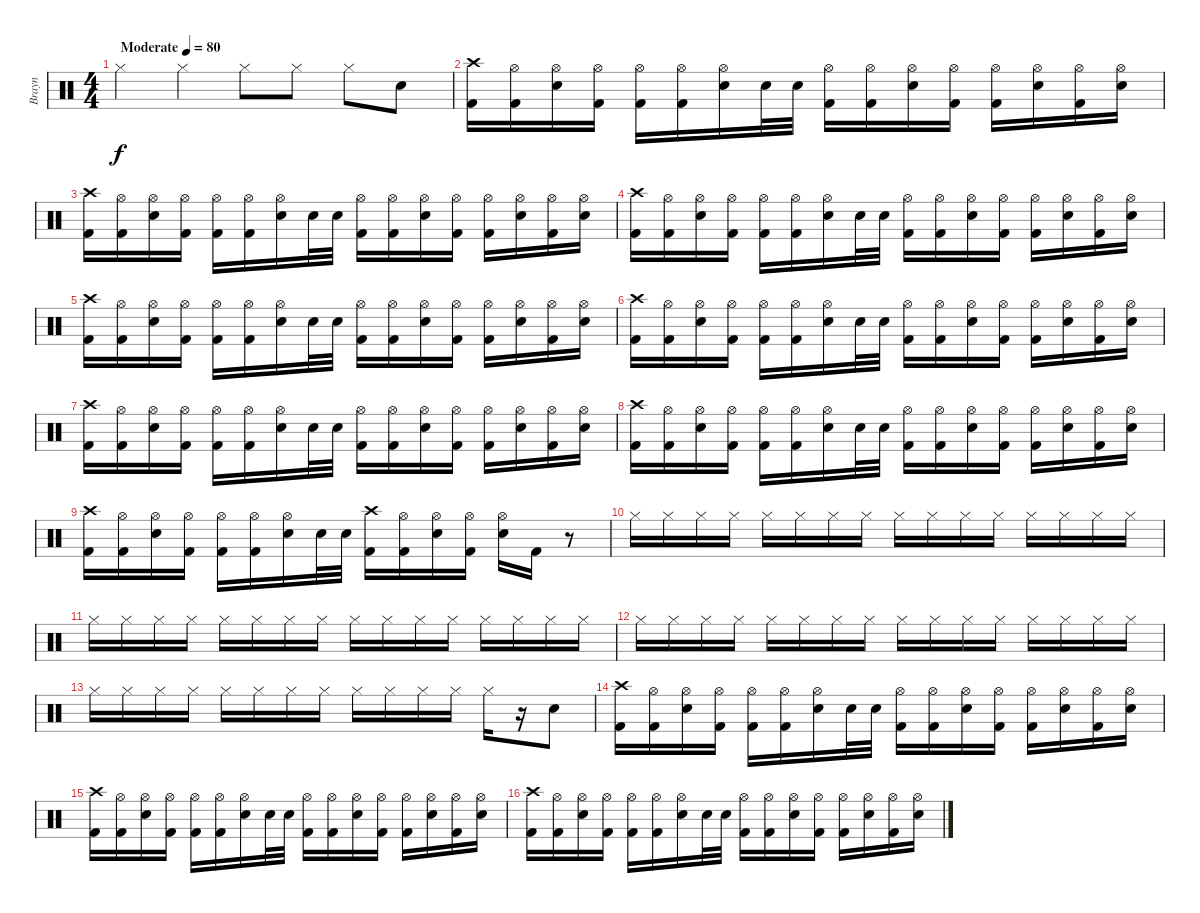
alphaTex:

\track ("Brayn" "Brayn") {instrument percussion}
\staff {score}
\articulation defaults
\ts (4 4)
\tempo (80 "Moderate")
\clef neutral
\ks c "Hi-Hat (closed)".4{dy f} "Hi-Hat (closed)".4 "Hi-Hat (closed)".8 "Hi-Hat (closed)".8 "Hi-Hat (closed)".8 "Snare (hit) 2".8
|
("Crash high (hit)" "Kick (hit) 2").16 ("Hi-Hat (open)" "Kick (hit) 2").16 ("Hi-Hat (open)" "Snare (hit) 2").16 ("Hi-Hat (open)" "Kick (hit) 2").16 ("Hi-Hat (open)" "Kick (hit) 2").16 ("Hi-Hat (open)" "Kick (hit) 2").16 ("Hi-Hat (open)" "Snare (hit) 2").16 "Snare (hit) 2".32 "Snare (hit) 2".32 ("Hi-Hat (open)" "Kick (hit) 2").16 ("Hi-Hat (open)" "Kick (hit) 2").16 ("Hi-Hat (open)" "Snare (hit) 2").16 ("Hi-Hat (open)" "Kick (hit) 2").16 ("Hi-Hat (open)" "Kick (hit) 2").16 ("Hi-Hat (open)" "Snare (hit) 2").16 ("Hi-Hat (open)" "Kick (hit) 2").16 ("Hi-Hat (open)" "Snare (hit) 2").16 |
("Crash high (hit)" "Kick (hit) 2").16 ("Hi-Hat (open)" "Kick (hit) 2").16 ("Hi-Hat (open)" "Snare (hit) 2").16 ("Hi-Hat (open)" "Kick (hit) 2").16 ("Hi-Hat (open)" "Kick (hit) 2").16 ("Hi-Hat (open)" "Kick (hit) 2").16 ("Hi-Hat (open)" "Snare (hit) 2").16 "Snare (hit) 2".32 "Snare (hit) 2".32 ("Hi-Hat (open)" "Kick (hit) 2").16 ("Hi-Hat (open)" "Kick (hit) 2").16 ("Hi-Hat (open)" "Snare (hit) 2").16 ("Hi-Hat (open)" "Kick (hit) 2").16 ("Hi-Hat (open)" "Kick (hit) 2").16 ("Hi-Hat (open)" "Snare (hit) 2").16 ("Hi-Hat (open)" "Kick (hit) 2").16 ("Hi-Hat (open)" "Snare (hit) 2").16 |
("Crash high (hit)" "Kick (hit) 2").16 ("Hi-Hat (open)" "Kick (hit) 2").16 ("Hi-Hat (open)" "Snare (hit) 2").16 ("Hi-Hat (open)" "Kick (hit) 2").16 ("Hi-Hat (open)" "Kick (hit) 2").16 ("Hi-Hat (open)" "Kick (hit) 2").16 ("Hi-Hat (open)" "Snare (hit) 2").16 "Snare (hit) 2".32 "Snare (hit) 2".32 ("Hi-Hat (open)" "Kick (hit) 2").16 ("Hi-Hat (open)" "Kick (hit) 2").16 ("Hi-Hat (open)" "Snare (hit) 2").16 ("Hi-Hat (open)" "Kick (hit) 2").16 ("Hi-Hat (open)" "Kick (hit) 2").16 ("Hi-Hat (open)" "Snare (hit) 2").16 ("Hi-Hat (open)" "Kick (hit) 2").16 ("Hi-Hat (open)" "Snare (hit) 2").16 |
("Crash high (hit)" "Kick (hit) 2").16 ("Hi-Hat (open)" "Kick (hit) 2").16 ("Hi-Hat (open)" "Snare (hit) 2").16 ("Hi-Hat (open)" "Kick (hit) 2").16 ("Hi-Hat (open)" "Kick (hit) 2").16 ("Hi-Hat (open)" "Kick (hit) 2").16 ("Hi-Hat (open)" "Snare (hit) 2").16 "Snare (hit) 2".32 "Snare (hit) 2".32 ("Hi-Hat (open)" "Kick (hit) 2").16 ("Hi-Hat (open)" "Kick (hit) 2").16 ("Hi-Hat (open)" "Snare (hit) 2").16 ("Hi-Hat (open)" "Kick (hit) 2").16 ("Hi-Hat (open)" "Kick (hit) 2").16 ("Hi-Hat (open)" "Snare (hit) 2").16 ("Hi-Hat (open)" "Kick (hit) 2").16 ("Hi-Hat (open)" "Snare (hit) 2").16 |
("Crash high (hit)" "Kick (hit) 2").16 ("Hi-Hat (open)" "Kick (hit) 2").16 ("Hi-Hat (open)" "Snare (hit) 2").16 ("Hi-Hat (open)" "Kick (hit) 2").16 ("Hi-Hat (open)" "Kick (hit) 2").16 ("Hi-Hat (open)" "Kick (hit) 2").16 ("Hi-Hat (open)" "Snare (hit) 2").16 "Snare (hit) 2".32 "Snare (hit) 2".32 ("Hi-Hat (open)" "Kick (hit) 2").16 ("Hi-Hat (open)" "Kick (hit) 2").16 ("Hi-Hat (open)" "Snare (hit) 2").16 ("Hi-Hat (open)" "Kick (hit) 2").16 ("Hi-Hat (open)" "Kick (hit) 2").16 ("Hi-Hat (open)" "Snare (hit) 2").16 ("Hi-Hat (open)" "Kick (hit) 2").16 ("Hi-Hat (open)" "Snare (hit) 2").16 |
("Crash high (hit)" "Kick (hit) 2").16 ("Hi-Hat (open)" "Kick (hit) 2").16 ("Hi-Hat (open)" "Snare (hit) 2").16 ("Hi-Hat (open)" "Kick (hit) 2").16 ("Hi-Hat (open)" "Kick (hit) 2").16 ("Hi-Hat (open)" "Kick (hit) 2").16 ("Hi-Hat (open)" "Snare (hit) 2").16 "Snare (hit) 2".32 "Snare (hit) 2".32 ("Hi-Hat (open)" "Kick (hit) 2").16 ("Hi-Hat (open)" "Kick (hit) 2").16 ("Hi-Hat (open)" "Snare (hit) 2").16 ("Hi-Hat (open)" "Kick (hit) 2").16 ("Hi-Hat (open)" "Kick (hit) 2").16 ("Hi-Hat (open)" "Snare (hit) 2").16 ("Hi-Hat (open)" "Kick (hit) 2").16 ("Hi-Hat (open)" "Snare (hit) 2").16 |
("Crash high (hit)" "Kick (hit) 2").16 ("Hi-Hat (open)" "Kick (hit) 2").16 ("Hi-Hat (open)" "Snare (hit) 2").16 ("Hi-Hat (open)" "Kick (hit) 2").16 ("Hi-Hat (open)" "Kick (hit) 2").16 ("Hi-Hat (open)" "Kick (hit) 2").16 ("Hi-Hat (open)" "Snare (hit) 2").16 "Snare (hit) 2".32 "Snare (hit) 2".32 ("Hi-Hat (open)" "Kick (hit) 2").16 ("Hi-Hat (open)" "Kick (hit) 2").16 ("Hi-Hat (open)" "Snare (hit) 2").16 ("Hi-Hat (open)" "Kick (hit) 2").16 ("Hi-Hat (open)" "Kick (hit) 2").16 ("Hi-Hat (open)" "Snare (hit) 2").16 ("Hi-Hat (open)" "Kick (hit) 2").16 ("Hi-Hat (open)" "Snare (hit) 2").16 |
("Crash high (hit)" "Kick (hit) 2").16 ("Hi-Hat (open)" "Kick (hit) 2").16 ("Hi-Hat (open)" "Snare (hit) 2").16 ("Hi-Hat (open)" "Kick (hit) 2").16 ("Hi-Hat (open)" "Kick (hit) 2").16 ("Hi-Hat (open)" "Kick (hit) 2").16 ("Hi-Hat (open)" "Snare (hit) 2").16 "Snare (hit) 2".32 "Snare (hit) 2".32 ("Crash high (hit)" "Kick (hit) 2").16 ("Hi-Hat (open)" "Kick (hit) 2").16 ("Hi-Hat (open)" "Snare (hit) 2").16 ("Hi-Hat (open)" "Kick (hit) 2").16 ("Hi-Hat (open)" "Snare (hit) 2").16 "Kick (hit) 2".16 r.8 |
"Hi-Hat (closed)".16 "Hi-Hat (closed)".16 "Hi-Hat (closed)".16 "Hi-Hat (closed)".16 "Hi-Hat (closed)".16 "Hi-Hat (closed)".16 "Hi-Hat (closed)".16 "Hi-Hat (closed)".16 "Hi-Hat (closed)".16 "Hi-Hat (closed)".16 "Hi-Hat (closed)".16 "Hi-Hat (closed)".16 "Hi-Hat (closed)".16 "Hi-Hat (closed)".16 "Hi-Hat (closed)".16 "Hi-Hat (closed)".16 |
"Hi-Hat (closed)".16 "Hi-Hat (closed)".16 "Hi-Hat (closed)".16 "Hi-Hat (closed)".16 "Hi-Hat (closed)".16 "Hi-Hat (closed)".16 "Hi-Hat (closed)".16 "Hi-Hat (closed)".16 "Hi-Hat (closed)".16 "Hi-Hat (closed)".16 "Hi-Hat (closed)".16 "Hi-Hat (closed)".16 "Hi-Hat (closed)".16 "Hi-Hat (closed)".16 "Hi-Hat (closed)".16 "Hi-Hat (closed)".16 |
"Hi-Hat (closed)".16 "Hi-Hat (closed)".16 "Hi-Hat (closed)".16 "Hi-Hat (closed)".16 "Hi-Hat (closed)".16 "Hi-Hat (closed)".16 "Hi-Hat (closed)".16 "Hi-Hat (closed)".16 "Hi-Hat (closed)".16 "Hi-Hat (closed)".16 "Hi-Hat (closed)".16 "Hi-Hat (closed)".16 "Hi-Hat (closed)".16 "Hi-Hat (closed)".16 "Hi-Hat (closed)".16 "Hi-Hat (closed)".16 |
"Hi-Hat (closed)".16 "Hi-Hat (closed)".16 "Hi-Hat (closed)".16 "Hi-Hat (closed)".16 "Hi-Hat (closed)".16 "Hi-Hat (closed)".16 "Hi-Hat (closed)".16 "Hi-Hat (closed)".16 "Hi-Hat (closed)".16 "Hi-Hat (closed)".16 "Hi-Hat (closed)".16 "Hi-Hat (closed)".16 "Hi-Hat (closed)".16 r.16 "Snare (hit) 2".8 |
("Crash high (hit)" "Kick (hit) 2").16 ("Hi-Hat (open)" "Kick (hit) 2").16 ("Hi-Hat (open)" "Snare (hit) 2").16 ("Hi-Hat (open)" "Kick (hit) 2").16 ("Hi-Hat (open)" "Kick (hit) 2").16 ("Hi-Hat (open)" "Kick (hit) 2").16 ("Hi-Hat (open)" "Snare (hit) 2").16 "Snare (hit) 2".32 "Snare (hit) 2".32 ("Hi-Hat (open)" "Kick (hit) 2").16 ("Hi-Hat (open)" "Kick (hit) 2").16 ("Hi-Hat (open)" "Snare (hit) 2").16 ("Hi-Hat (open)" "Kick (hit) 2").16 ("Hi-Hat (open)" "Kick (hit) 2").16 ("Hi-Hat (open)" "Snare (hit) 2").16 ("Hi-Hat (open)" "Kick (hit) 2").16 ("Hi-Hat (open)" "Snare (hit) 2").16 |
("Crash high (hit)" "Kick (hit) 2").16 ("Hi-Hat (open)" "Kick (hit) 2").16 ("Hi-Hat (open)" "Snare (hit) 2").16 ("Hi-Hat (open)" "Kick (hit) 2").16 ("Hi-Hat (open)" "Kick (hit) 2").16 ("Hi-Hat (open)" "Kick (hit) 2").16 ("Hi-Hat (open)" "Snare (hit) 2").16 "Snare (hit) 2".32 "Snare (hit) 2".32 ("Hi-Hat (open)" "Kick (hit) 2").16 ("Hi-Hat (open)" "Kick (hit) 2").16 ("Hi-Hat (open)" "Snare (hit) 2").16 ("Hi-Hat (open)" "Kick (hit) 2").16 ("Hi-Hat (open)" "Kick (hit) 2").16 ("Hi-Hat (open)" "Snare (hit) 2").16 ("Hi-Hat (open)" "Kick (hit) 2").16 ("Hi-Hat (open)" "Snare (hit) 2").16 |
("Crash high (hit)" "Kick (hit) 2").16 ("Hi-Hat (open)" "Kick (hit) 2").16 ("Hi-Hat (open)" "Snare (hit) 2").16 ("Hi-Hat (open)" "Kick (hit) 2").16 ("Hi-Hat (open)" "Kick (hit) 2").16 ("Hi-Hat (open)" "Kick (hit) 2").16 ("Hi-Hat (open)" "Snare (hit) 2").16 "Snare (hit) 2".32 "Snare (hit) 2".32 ("Hi-Hat (open)" "Kick (hit) 2").16 ("Hi-Hat (open)" "Kick (hit) 2").16 ("Hi-Hat (open)" "Snare (hit) 2").16 ("Hi-Hat (open)" "Kick (hit) 2").16 ("Hi-Hat (open)" "Kick (hit) 2").16 ("Hi-Hat (open)" "Snare (hit) 2").16 ("Hi-Hat (open)" "Kick (hit) 2").16 ("Hi-Hat (open)" "Snare (hit) 2").16
